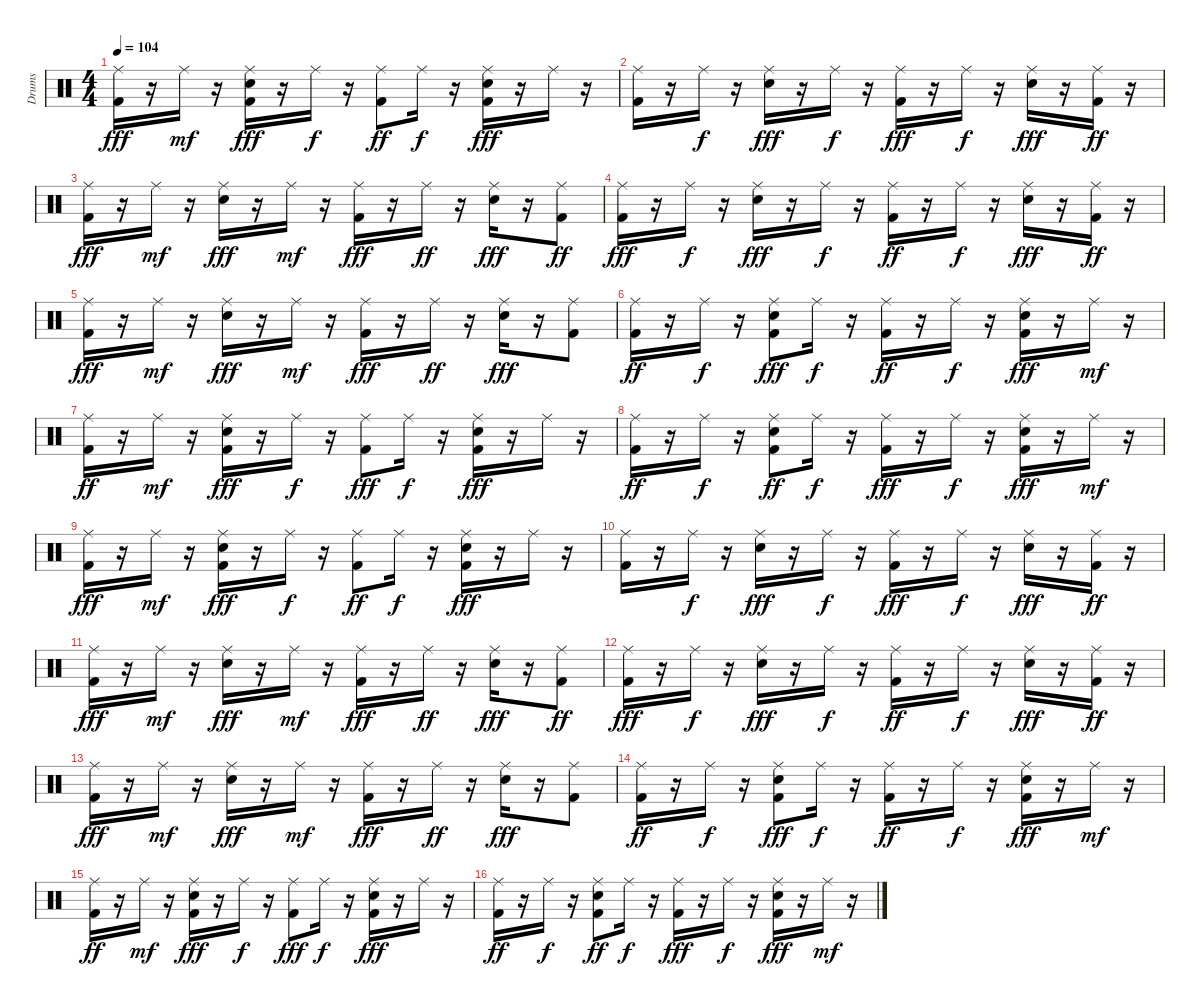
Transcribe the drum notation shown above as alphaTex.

\track ("Drums" "Drums") {instrument percussion}
\staff {score}
\articulation defaults
\ts (4 4)
\tempo 104
\clef neutral
\ks c
("Ride (middle)" "Kick (hit) 2").16{dy fff} r.16 "Ride (middle)".16{dy mf} r.16 ("Snare (hit) 2" "Ride (middle)" "Kick (hit) 2").16{dy fff} r.16 "Ride (middle)".16{dy f} r.16 ("Kick (hit) 2" "Ride (middle)").8{dy ff} "Ride (middle)".16{dy f} r.16 ("Snare (hit) 2" "Ride (middle)" "Kick (hit) 2").16{dy fff} r.16 "Ride (middle)".16 r.16 |
("Ride (middle)" "Kick (hit) 2").16 r.16 "Ride (middle)".16{dy f} r.16 ("Ride (middle)" "Snare (hit) 2").16{dy fff} r.16 "Ride (middle)".16{dy f} r.16 ("Ride (middle)" "Kick (hit) 2").16{dy fff} r.16 "Ride (middle)".16{dy f} r.16 ("Ride (middle)" "Snare (hit) 2").16{dy fff} r.16 ("Kick (hit) 2" "Ride (middle)").16{dy ff} r.16 |
("Ride (middle)" "Kick (hit) 2").16{dy fff} r.16 "Ride (middle)".16{dy mf} r.16 ("Snare (hit) 2" "Ride (middle)").16{dy fff} r.16 "Ride (middle)".16{dy mf} r.16 ("Ride (middle)" "Kick (hit) 2").16{dy fff} r.16 "Ride (middle)".16{dy ff} r.16 ("Snare (hit) 2" "Ride (middle)").16{dy fff} r.16 ("Ride (middle)" "Kick (hit) 2").8{dy ff} |
("Ride (middle)" "Kick (hit) 2").16{dy fff} r.16 "Ride (middle)".16{dy f} r.16 ("Snare (hit) 2" "Ride (middle)").16{dy fff} r.16 "Ride (middle)".16{dy f} r.16 ("Kick (hit) 2" "Ride (middle)").16{dy ff} r.16 "Ride (middle)".16{dy f} r.16 ("Ride (middle)" "Snare (hit) 2").16{dy fff} r.16 ("Kick (hit) 2" "Ride (middle)").16{dy ff} r.16 |
("Ride (middle)" "Kick (hit) 2").16{dy fff} r.16 "Ride (middle)".16{dy mf} r.16 ("Snare (hit) 2" "Ride (middle)").16{dy fff} r.16 "Ride (middle)".16{dy mf} r.16 ("Ride (middle)" "Kick (hit) 2").16{dy fff} r.16 "Ride (middle)".16{dy ff} r.16 ("Ride (middle)" "Snare (hit) 2").16{dy fff} r.16 ("Kick (hit) 2" "Ride (middle)").8 |
("Ride (middle)" "Kick (hit) 2").16{dy ff} r.16 "Ride (middle)".16{dy f} r.16 ("Kick (hit) 2" "Ride (middle)" "Snare (hit) 2").8{dy fff} "Ride (middle)".16{dy f} r.16 ("Kick (hit) 2" "Ride (middle)").16{dy ff} r.16 "Ride (middle)".16{dy f} r.16 ("Ride (middle)" "Kick (hit) 2" "Snare (hit) 2").16{dy fff} r.16 "Ride (middle)".16{dy mf} r.16 |
("Kick (hit) 2" "Ride (middle)").16{dy ff} r.16 "Ride (middle)".16{dy mf} r.16 ("Snare (hit) 2" "Ride (middle)" "Kick (hit) 2").16{dy fff} r.16 "Ride (middle)".16{dy f} r.16 ("Ride (middle)" "Kick (hit) 2").8{dy fff} "Ride (middle)".16{dy f} r.16 ("Snare (hit) 2" "Ride (middle)" "Kick (hit) 2").16{dy fff} r.16 "Ride (middle)".16 r.16 |
("Kick (hit) 2" "Ride (middle)").16{dy ff} r.16 "Ride (middle)".16{dy f} r.16 ("Kick (hit) 2" "Snare (hit) 2" "Ride (middle)").8{dy ff} "Ride (middle)".16{dy f} r.16 ("Ride (middle)" "Kick (hit) 2").16{dy fff} r.16 "Ride (middle)".16{dy f} r.16 ("Snare (hit) 2" "Ride (middle)" "Kick (hit) 2").16{dy fff} r.16 "Ride (middle)".16{dy mf} r.16 |
("Ride (middle)" "Kick (hit) 2").16{dy fff} r.16 "Ride (middle)".16{dy mf} r.16 ("Snare (hit) 2" "Ride (middle)" "Kick (hit) 2").16{dy fff} r.16 "Ride (middle)".16{dy f} r.16 ("Kick (hit) 2" "Ride (middle)").8{dy ff} "Ride (middle)".16{dy f} r.16 ("Snare (hit) 2" "Ride (middle)" "Kick (hit) 2").16{dy fff} r.16 "Ride (middle)".16 r.16 |
("Ride (middle)" "Kick (hit) 2").16 r.16 "Ride (middle)".16{dy f} r.16 ("Ride (middle)" "Snare (hit) 2").16{dy fff} r.16 "Ride (middle)".16{dy f} r.16 ("Ride (middle)" "Kick (hit) 2").16{dy fff} r.16 "Ride (middle)".16{dy f} r.16 ("Ride (middle)" "Snare (hit) 2").16{dy fff} r.16 ("Kick (hit) 2" "Ride (middle)").16{dy ff} r.16 |
("Ride (middle)" "Kick (hit) 2").16{dy fff} r.16 "Ride (middle)".16{dy mf} r.16 ("Snare (hit) 2" "Ride (middle)").16{dy fff} r.16 "Ride (middle)".16{dy mf} r.16 ("Ride (middle)" "Kick (hit) 2").16{dy fff} r.16 "Ride (middle)".16{dy ff} r.16 ("Snare (hit) 2" "Ride (middle)").16{dy fff} r.16 ("Ride (middle)" "Kick (hit) 2").8{dy ff} |
("Ride (middle)" "Kick (hit) 2").16{dy fff} r.16 "Ride (middle)".16{dy f} r.16 ("Snare (hit) 2" "Ride (middle)").16{dy fff} r.16 "Ride (middle)".16{dy f} r.16 ("Kick (hit) 2" "Ride (middle)").16{dy ff} r.16 "Ride (middle)".16{dy f} r.16 ("Ride (middle)" "Snare (hit) 2").16{dy fff} r.16 ("Kick (hit) 2" "Ride (middle)").16{dy ff} r.16 |
("Ride (middle)" "Kick (hit) 2").16{dy fff} r.16 "Ride (middle)".16{dy mf} r.16 ("Snare (hit) 2" "Ride (middle)").16{dy fff} r.16 "Ride (middle)".16{dy mf} r.16 ("Ride (middle)" "Kick (hit) 2").16{dy fff} r.16 "Ride (middle)".16{dy ff} r.16 ("Ride (middle)" "Snare (hit) 2").16{dy fff} r.16 ("Kick (hit) 2" "Ride (middle)").8 |
("Ride (middle)" "Kick (hit) 2").16{dy ff} r.16 "Ride (middle)".16{dy f} r.16 ("Kick (hit) 2" "Ride (middle)" "Snare (hit) 2").8{dy fff} "Ride (middle)".16{dy f} r.16 ("Kick (hit) 2" "Ride (middle)").16{dy ff} r.16 "Ride (middle)".16{dy f} r.16 ("Ride (middle)" "Kick (hit) 2" "Snare (hit) 2").16{dy fff} r.16 "Ride (middle)".16{dy mf} r.16 |
("Kick (hit) 2" "Ride (middle)").16{dy ff} r.16 "Ride (middle)".16{dy mf} r.16 ("Snare (hit) 2" "Ride (middle)" "Kick (hit) 2").16{dy fff} r.16 "Ride (middle)".16{dy f} r.16 ("Ride (middle)" "Kick (hit) 2").8{dy fff} "Ride (middle)".16{dy f} r.16 ("Snare (hit) 2" "Ride (middle)" "Kick (hit) 2").16{dy fff} r.16 "Ride (middle)".16 r.16 |
("Kick (hit) 2" "Ride (middle)").16{dy ff} r.16 "Ride (middle)".16{dy f} r.16 ("Kick (hit) 2" "Snare (hit) 2" "Ride (middle)").8{dy ff} "Ride (middle)".16{dy f} r.16 ("Ride (middle)" "Kick (hit) 2").16{dy fff} r.16 "Ride (middle)".16{dy f} r.16 ("Snare (hit) 2" "Ride (middle)" "Kick (hit) 2").16{dy fff} r.16 "Ride (middle)".16{dy mf} r.16
